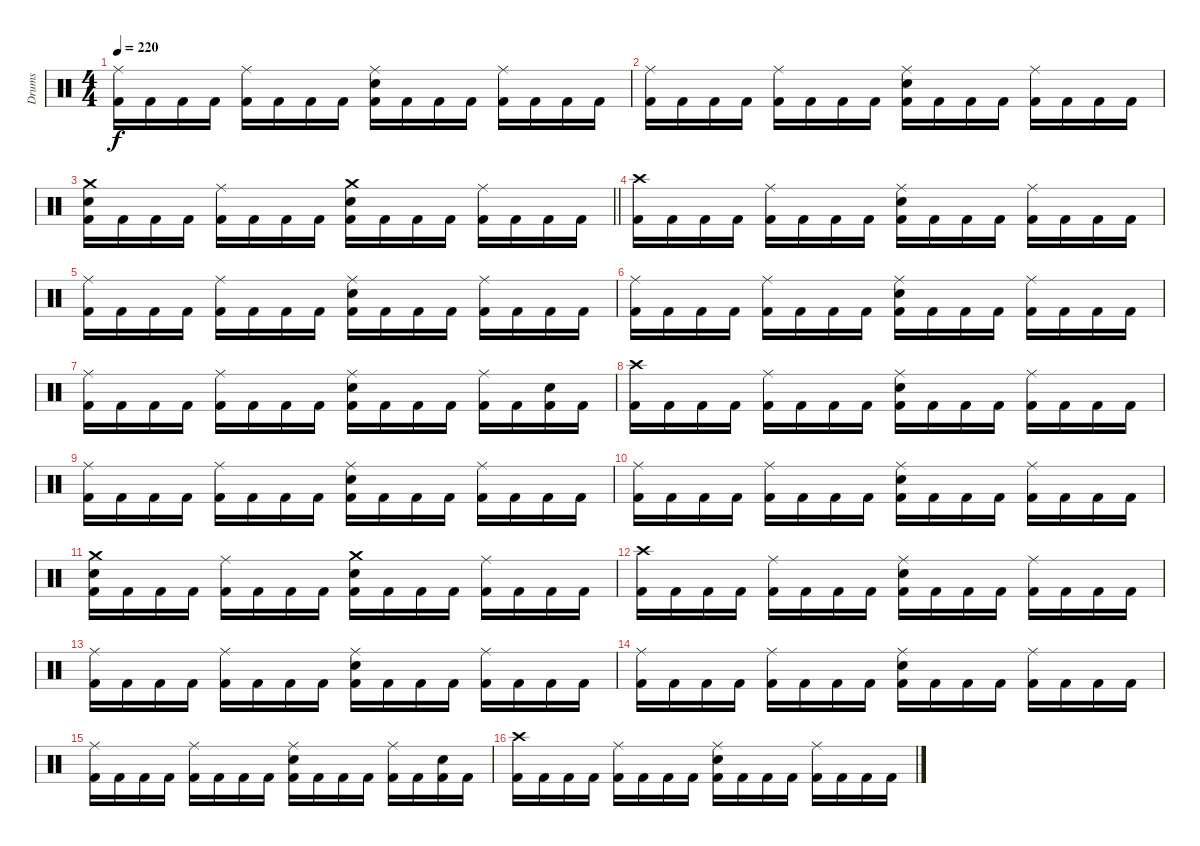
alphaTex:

\track ("Drums" "Drums") {instrument percussion}
\staff {score}
\articulation defaults
\ts (4 4)
\tempo 220
\clef neutral
\ks c
("Ride (middle)" "Kick (hit) 2").16{dy f} "Kick (hit) 2".16 "Kick (hit) 2".16 "Kick (hit) 2".16 ("Ride (middle)" "Kick (hit) 2").16 "Kick (hit) 2".16 "Kick (hit) 2".16 "Kick (hit) 2".16 ("Ride (middle)" "Snare (hit) 2" "Kick (hit) 2").16 "Kick (hit) 2".16 "Kick (hit) 2".16 "Kick (hit) 2".16 ("Ride (middle)" "Kick (hit) 2").16 "Kick (hit) 2".16 "Kick (hit) 2".16 "Kick (hit) 2".16 |
("Ride (middle)" "Kick (hit) 2").16 "Kick (hit) 2".16 "Kick (hit) 2".16 "Kick (hit) 2".16 ("Ride (middle)" "Kick (hit) 2").16 "Kick (hit) 2".16 "Kick (hit) 2".16 "Kick (hit) 2".16 ("Ride (middle)" "Snare (hit) 2" "Kick (hit) 2").16 "Kick (hit) 2".16 "Kick (hit) 2".16 "Kick (hit) 2".16 ("Ride (middle)" "Kick (hit) 2").16 "Kick (hit) 2".16 "Kick (hit) 2".16 "Kick (hit) 2".16 |
\barLineRight lightlight
("Crash medium (hit)" "Snare (hit) 2" "Kick (hit) 2").16 "Kick (hit) 2".16 "Kick (hit) 2".16 "Kick (hit) 2".16 ("Ride (middle)" "Kick (hit) 2").16 "Kick (hit) 2".16 "Kick (hit) 2".16 "Kick (hit) 2".16 ("Crash medium (hit)" "Snare (hit) 2" "Kick (hit) 2").16 "Kick (hit) 2".16 "Kick (hit) 2".16 "Kick (hit) 2".16 ("Ride (middle)" "Kick (hit) 2").16 "Kick (hit) 2".16 "Kick (hit) 2".16 "Kick (hit) 2".16 |
("Crash high (hit)" "Kick (hit) 2").16 "Kick (hit) 2".16 "Kick (hit) 2".16 "Kick (hit) 2".16 ("Ride (middle)" "Kick (hit) 2").16 "Kick (hit) 2".16 "Kick (hit) 2".16 "Kick (hit) 2".16 ("Ride (middle)" "Snare (hit) 2" "Kick (hit) 2").16 "Kick (hit) 2".16 "Kick (hit) 2".16 "Kick (hit) 2".16 ("Ride (middle)" "Kick (hit) 2").16 "Kick (hit) 2".16 "Kick (hit) 2".16 "Kick (hit) 2".16 |
("Ride (middle)" "Kick (hit) 2").16 "Kick (hit) 2".16 "Kick (hit) 2".16 "Kick (hit) 2".16 ("Ride (middle)" "Kick (hit) 2").16 "Kick (hit) 2".16 "Kick (hit) 2".16 "Kick (hit) 2".16 ("Ride (middle)" "Snare (hit) 2" "Kick (hit) 2").16 "Kick (hit) 2".16 "Kick (hit) 2".16 "Kick (hit) 2".16 ("Ride (middle)" "Kick (hit) 2").16 "Kick (hit) 2".16 "Kick (hit) 2".16 "Kick (hit) 2".16 |
("Ride (middle)" "Kick (hit) 2").16 "Kick (hit) 2".16 "Kick (hit) 2".16 "Kick (hit) 2".16 ("Ride (middle)" "Kick (hit) 2").16 "Kick (hit) 2".16 "Kick (hit) 2".16 "Kick (hit) 2".16 ("Ride (middle)" "Snare (hit) 2" "Kick (hit) 2").16 "Kick (hit) 2".16 "Kick (hit) 2".16 "Kick (hit) 2".16 ("Ride (middle)" "Kick (hit) 2").16 "Kick (hit) 2".16 "Kick (hit) 2".16 "Kick (hit) 2".16 |
("Ride (middle)" "Kick (hit) 2").16 "Kick (hit) 2".16 "Kick (hit) 2".16 "Kick (hit) 2".16 ("Ride (middle)" "Kick (hit) 2").16 "Kick (hit) 2".16 "Kick (hit) 2".16 "Kick (hit) 2".16 ("Ride (middle)" "Snare (hit) 2" "Kick (hit) 2").16 "Kick (hit) 2".16 "Kick (hit) 2".16 "Kick (hit) 2".16 ("Ride (middle)" "Kick (hit) 2").16 "Kick (hit) 2".16 ("Snare (hit) 2" "Kick (hit) 2").16 "Kick (hit) 2".16 |
("Crash high (hit)" "Kick (hit) 2").16 "Kick (hit) 2".16 "Kick (hit) 2".16 "Kick (hit) 2".16 ("Ride (middle)" "Kick (hit) 2").16 "Kick (hit) 2".16 "Kick (hit) 2".16 "Kick (hit) 2".16 ("Ride (middle)" "Snare (hit) 2" "Kick (hit) 2").16 "Kick (hit) 2".16 "Kick (hit) 2".16 "Kick (hit) 2".16 ("Ride (middle)" "Kick (hit) 2").16 "Kick (hit) 2".16 "Kick (hit) 2".16 "Kick (hit) 2".16 |
("Ride (middle)" "Kick (hit) 2").16 "Kick (hit) 2".16 "Kick (hit) 2".16 "Kick (hit) 2".16 ("Ride (middle)" "Kick (hit) 2").16 "Kick (hit) 2".16 "Kick (hit) 2".16 "Kick (hit) 2".16 ("Ride (middle)" "Snare (hit) 2" "Kick (hit) 2").16 "Kick (hit) 2".16 "Kick (hit) 2".16 "Kick (hit) 2".16 ("Ride (middle)" "Kick (hit) 2").16 "Kick (hit) 2".16 "Kick (hit) 2".16 "Kick (hit) 2".16 |
("Ride (middle)" "Kick (hit) 2").16 "Kick (hit) 2".16 "Kick (hit) 2".16 "Kick (hit) 2".16 ("Ride (middle)" "Kick (hit) 2").16 "Kick (hit) 2".16 "Kick (hit) 2".16 "Kick (hit) 2".16 ("Ride (middle)" "Snare (hit) 2" "Kick (hit) 2").16 "Kick (hit) 2".16 "Kick (hit) 2".16 "Kick (hit) 2".16 ("Ride (middle)" "Kick (hit) 2").16 "Kick (hit) 2".16 "Kick (hit) 2".16 "Kick (hit) 2".16 |
("Crash medium (hit)" "Snare (hit) 2" "Kick (hit) 2").16 "Kick (hit) 2".16 "Kick (hit) 2".16 "Kick (hit) 2".16 ("Ride (middle)" "Kick (hit) 2").16 "Kick (hit) 2".16 "Kick (hit) 2".16 "Kick (hit) 2".16 ("Crash medium (hit)" "Snare (hit) 2" "Kick (hit) 2").16 "Kick (hit) 2".16 "Kick (hit) 2".16 "Kick (hit) 2".16 ("Ride (middle)" "Kick (hit) 2").16 "Kick (hit) 2".16 "Kick (hit) 2".16 "Kick (hit) 2".16 |
("Crash high (hit)" "Kick (hit) 2").16 "Kick (hit) 2".16 "Kick (hit) 2".16 "Kick (hit) 2".16 ("Ride (middle)" "Kick (hit) 2").16 "Kick (hit) 2".16 "Kick (hit) 2".16 "Kick (hit) 2".16 ("Ride (middle)" "Snare (hit) 2" "Kick (hit) 2").16 "Kick (hit) 2".16 "Kick (hit) 2".16 "Kick (hit) 2".16 ("Ride (middle)" "Kick (hit) 2").16 "Kick (hit) 2".16 "Kick (hit) 2".16 "Kick (hit) 2".16 |
("Ride (middle)" "Kick (hit) 2").16 "Kick (hit) 2".16 "Kick (hit) 2".16 "Kick (hit) 2".16 ("Ride (middle)" "Kick (hit) 2").16 "Kick (hit) 2".16 "Kick (hit) 2".16 "Kick (hit) 2".16 ("Ride (middle)" "Snare (hit) 2" "Kick (hit) 2").16 "Kick (hit) 2".16 "Kick (hit) 2".16 "Kick (hit) 2".16 ("Ride (middle)" "Kick (hit) 2").16 "Kick (hit) 2".16 "Kick (hit) 2".16 "Kick (hit) 2".16 |
("Ride (middle)" "Kick (hit) 2").16 "Kick (hit) 2".16 "Kick (hit) 2".16 "Kick (hit) 2".16 ("Ride (middle)" "Kick (hit) 2").16 "Kick (hit) 2".16 "Kick (hit) 2".16 "Kick (hit) 2".16 ("Ride (middle)" "Snare (hit) 2" "Kick (hit) 2").16 "Kick (hit) 2".16 "Kick (hit) 2".16 "Kick (hit) 2".16 ("Ride (middle)" "Kick (hit) 2").16 "Kick (hit) 2".16 "Kick (hit) 2".16 "Kick (hit) 2".16 |
("Ride (middle)" "Kick (hit) 2").16 "Kick (hit) 2".16 "Kick (hit) 2".16 "Kick (hit) 2".16 ("Ride (middle)" "Kick (hit) 2").16 "Kick (hit) 2".16 "Kick (hit) 2".16 "Kick (hit) 2".16 ("Ride (middle)" "Snare (hit) 2" "Kick (hit) 2").16 "Kick (hit) 2".16 "Kick (hit) 2".16 "Kick (hit) 2".16 ("Ride (middle)" "Kick (hit) 2").16 "Kick (hit) 2".16 ("Snare (hit) 2" "Kick (hit) 2").16 "Kick (hit) 2".16 |
("Crash high (hit)" "Kick (hit) 2").16 "Kick (hit) 2".16 "Kick (hit) 2".16 "Kick (hit) 2".16 ("Ride (middle)" "Kick (hit) 2").16 "Kick (hit) 2".16 "Kick (hit) 2".16 "Kick (hit) 2".16 ("Ride (middle)" "Snare (hit) 2" "Kick (hit) 2").16 "Kick (hit) 2".16 "Kick (hit) 2".16 "Kick (hit) 2".16 ("Ride (middle)" "Kick (hit) 2").16 "Kick (hit) 2".16 "Kick (hit) 2".16 "Kick (hit) 2".16
